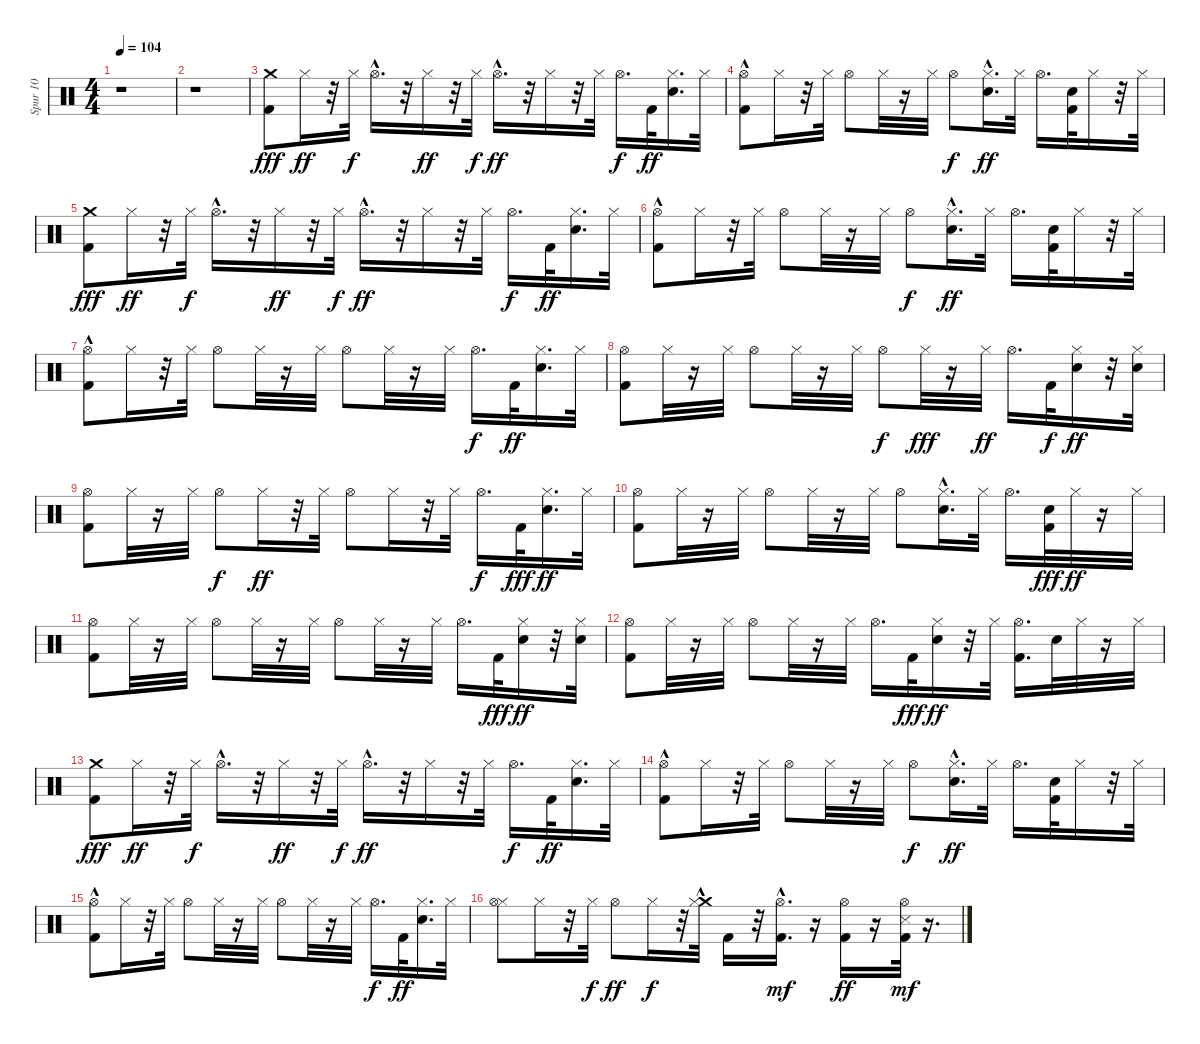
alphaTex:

\track ("Spur 10" "Spur 10") {instrument percussion}
\staff {score}
\articulation defaults
\ts (4 4)
\tempo 104
\clef neutral
\ks c
r.1{dy fff} |
r.1 |
("Kick (hit) 2" "Crash medium (hit)").8 "Hi-Hat (closed)".16{dy ff} r.32 "Hi-Hat (closed)".32{dy f} "Hi-Hat (open)"{hac}.16{d} r.32 "Hi-Hat (closed)".16{dy ff} r.32 "Hi-Hat (closed)".32{dy f} "Hi-Hat (open)"{hac}.16{d dy ff} r.32 "Hi-Hat (closed)".16 r.32 "Hi-Hat (closed)".32 "Hi-Hat (open)".16{d dy f} "Kick (hit) 2".32{dy ff} ("Electric Snare (hit)" "Hi-Hat (closed)").16{d} "Hi-Hat (closed)".32 |
("Kick (hit) 2" "Hi-Hat (open)"{hac}).8 "Hi-Hat (closed)".16 r.32 "Hi-Hat (closed)".32 "Hi-Hat (open)".8 "Hi-Hat (closed)".32 r.16 "Hi-Hat (closed)".32 "Hi-Hat (open)".8{dy f} ("Electric Snare (hit)"{hac} "Hi-Hat (closed)").16{d dy ff} "Hi-Hat (closed)".32 "Hi-Hat (open)".16{d} ("Electric Snare (hit)" "Kick (hit) 2").32 "Hi-Hat (closed)".16 r.32 "Hi-Hat (closed)".32 |
("Kick (hit) 2" "Crash medium (hit)").8{dy fff} "Hi-Hat (closed)".16{dy ff} r.32 "Hi-Hat (closed)".32{dy f} "Hi-Hat (open)"{hac}.16{d} r.32 "Hi-Hat (closed)".16{dy ff} r.32 "Hi-Hat (closed)".32{dy f} "Hi-Hat (open)"{hac}.16{d dy ff} r.32 "Hi-Hat (closed)".16 r.32 "Hi-Hat (closed)".32 "Hi-Hat (open)".16{d dy f} "Kick (hit) 2".32{dy ff} ("Electric Snare (hit)" "Hi-Hat (closed)").16{d} "Hi-Hat (closed)".32 |
("Kick (hit) 2" "Hi-Hat (open)"{hac}).8 "Hi-Hat (closed)".16 r.32 "Hi-Hat (closed)".32 "Hi-Hat (open)".8 "Hi-Hat (closed)".32 r.16 "Hi-Hat (closed)".32 "Hi-Hat (open)".8{dy f} ("Electric Snare (hit)"{hac} "Hi-Hat (closed)").16{d dy ff} "Hi-Hat (closed)".32 "Hi-Hat (open)".16{d} ("Electric Snare (hit)" "Kick (hit) 2").32 "Hi-Hat (closed)".16 r.32 "Hi-Hat (closed)".32 |
("Kick (hit) 2" "Hi-Hat (open)"{hac}).8 "Hi-Hat (closed)".16 r.32 "Hi-Hat (closed)".32 "Hi-Hat (open)".8 "Hi-Hat (closed)".32 r.16 "Hi-Hat (closed)".32 "Hi-Hat (open)".8 "Hi-Hat (closed)".32 r.16 "Hi-Hat (closed)".32 "Hi-Hat (open)".16{d dy f} "Kick (hit) 2".32{dy ff} ("Electric Snare (hit)" "Hi-Hat (closed)").16{d} "Hi-Hat (closed)".32 |
("Kick (hit) 2" "Hi-Hat (open)").8 "Hi-Hat (closed)".32 r.16 "Hi-Hat (closed)".32 "Hi-Hat (open)".8 "Hi-Hat (closed)".32 r.16 "Hi-Hat (closed)".32 "Hi-Hat (open)".8{dy f} "Hi-Hat (closed)".32{dy fff} r.16 "Hi-Hat (closed)".32{dy ff} "Hi-Hat (open)".16{d} "Kick (hit) 2".32{dy f} ("Electric Snare (hit)" "Hi-Hat (closed)").16{dy ff} r.32 ("Electric Snare (hit)" "Hi-Hat (closed)").32 |
("Kick (hit) 2" "Hi-Hat (open)").8 "Hi-Hat (closed)".32 r.16 "Hi-Hat (closed)".32 "Hi-Hat (open)".8{dy f} "Hi-Hat (closed)".16{dy ff} r.32 "Hi-Hat (closed)".32 "Hi-Hat (open)".8 "Hi-Hat (closed)".16 r.32 "Hi-Hat (closed)".32 "Hi-Hat (open)".16{d dy f} "Kick (hit) 2".32{dy fff} ("Electric Snare (hit)" "Hi-Hat (closed)").16{d dy ff} "Hi-Hat (closed)".32 |
("Kick (hit) 2" "Hi-Hat (open)").8 "Hi-Hat (closed)".32 r.16 "Hi-Hat (closed)".32 "Hi-Hat (open)".8 "Hi-Hat (closed)".32 r.16 "Hi-Hat (closed)".32 "Hi-Hat (open)".8 ("Electric Snare (hit)"{hac} "Hi-Hat (closed)").16{d} "Hi-Hat (closed)".32 "Hi-Hat (open)".16{d} ("Electric Snare (hit)" "Kick (hit) 2").32{dy fff} "Hi-Hat (closed)".32{dy ff} r.16 "Hi-Hat (closed)".32 |
("Kick (hit) 2" "Hi-Hat (open)").8 "Hi-Hat (closed)".32 r.16 "Hi-Hat (closed)".32 "Hi-Hat (open)".8 "Hi-Hat (closed)".32 r.16 "Hi-Hat (closed)".32 "Hi-Hat (open)".8 "Hi-Hat (closed)".32 r.16 "Hi-Hat (closed)".32 "Hi-Hat (open)".16{d} "Kick (hit) 2".32{dy fff} ("Electric Snare (hit)" "Hi-Hat (closed)").16{dy ff} r.32 ("Electric Snare (hit)" "Hi-Hat (closed)").32 |
("Kick (hit) 2" "Hi-Hat (open)").8 "Hi-Hat (closed)".32 r.16 "Hi-Hat (closed)".32 "Hi-Hat (open)".8 "Hi-Hat (closed)".32 r.16 "Hi-Hat (closed)".32 "Hi-Hat (open)".16{d} "Kick (hit) 2".32{dy fff} ("Electric Snare (hit)" "Hi-Hat (closed)").16{dy ff} r.32 "Hi-Hat (closed)".32 ("Kick (hit) 2" "Hi-Hat (open)").16{d} "Electric Snare (hit)".32 "Hi-Hat (closed)".32 r.16 "Hi-Hat (closed)".32 |
("Kick (hit) 2" "Crash medium (hit)").8{dy fff} "Hi-Hat (closed)".16{dy ff} r.32 "Hi-Hat (closed)".32{dy f} "Hi-Hat (open)"{hac}.16{d} r.32 "Hi-Hat (closed)".16{dy ff} r.32 "Hi-Hat (closed)".32{dy f} "Hi-Hat (open)"{hac}.16{d dy ff} r.32 "Hi-Hat (closed)".16 r.32 "Hi-Hat (closed)".32 "Hi-Hat (open)".16{d dy f} "Kick (hit) 2".32{dy ff} ("Electric Snare (hit)" "Hi-Hat (closed)").16{d} "Hi-Hat (closed)".32 |
("Kick (hit) 2" "Hi-Hat (open)"{hac}).8 "Hi-Hat (closed)".16 r.32 "Hi-Hat (closed)".32 "Hi-Hat (open)".8 "Hi-Hat (closed)".32 r.16 "Hi-Hat (closed)".32 "Hi-Hat (open)".8{dy f} ("Electric Snare (hit)"{hac} "Hi-Hat (closed)").16{d dy ff} "Hi-Hat (closed)".32 "Hi-Hat (open)".16{d} ("Electric Snare (hit)" "Kick (hit) 2").32 "Hi-Hat (closed)".16 r.32 "Hi-Hat (closed)".32 |
("Kick (hit) 2" "Hi-Hat (open)"{hac}).8 "Hi-Hat (closed)".16 r.32 "Hi-Hat (closed)".32 "Hi-Hat (open)".8 "Hi-Hat (closed)".32 r.16 "Hi-Hat (closed)".32 "Hi-Hat (open)".8 "Hi-Hat (closed)".32 r.16 "Hi-Hat (closed)".32 "Hi-Hat (open)".16{d dy f} "Kick (hit) 2".32{dy ff} ("Electric Snare (hit)" "Hi-Hat (closed)").16{d} "Hi-Hat (closed)".32 |
("Hi-Hat (closed)" "Hi-Hat (open)").8 "Hi-Hat (closed)".16 r.32 "Hi-Hat (closed)".32{dy f} "Hi-Hat (open)".8{dy ff} "Hi-Hat (closed)".16{dy f} r.32 ("Crash medium (hit)"{hac} "Hi-Hat (closed)").32 "Kick (hit) 2".16 r.32 ("Hi-Hat (open)"{hac} "Kick (hit) 2").16{d dy mf} r.16 ("Hi-Hat (open)" "Kick (hit) 2").16{dy ff} r.16 ("Hi-Hat (open)" "Kick (hit) 2" "Snare (side stick) 3").32{dy mf} r.16{d}
